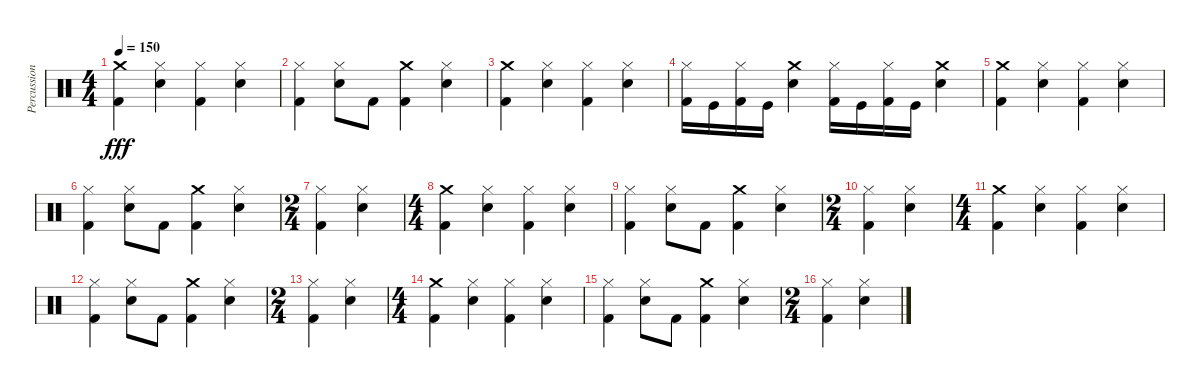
\track ("Percussion" "Percussion") {instrument percussion}
\staff {score}
\articulation defaults
\ts (4 4)
\tempo 150
\clef neutral
\ks c
("Kick (hit) 2" "Crash medium (hit)").4{dy fff} ("Hi-Hat (closed)" "Snare (hit) 2").4 ("Hi-Hat (closed)" "Kick (hit) 2").4 ("Snare (hit) 2" "Hi-Hat (closed)").4 |
("Hi-Hat (closed)" "Kick (hit) 2").4 ("Snare (hit) 2" "Hi-Hat (closed)").8 "Kick (hit) 2".8 ("Kick (hit) 2" "Crash medium (hit)").4 ("Hi-Hat (closed)" "Snare (hit) 2").4 |
("Kick (hit) 2" "Crash medium (hit)").4 ("Hi-Hat (closed)" "Snare (hit) 2").4 ("Hi-Hat (closed)" "Kick (hit) 2").4 ("Snare (hit) 2" "Hi-Hat (closed)").4 |
("Kick (hit) 2" "Hi-Hat (closed)").16 "Kick (hit)".16 ("Kick (hit) 2" "Hi-Hat (closed)").16 "Kick (hit)".16 ("Snare (hit) 2" "Crash medium (hit)").4 ("Kick (hit) 2" "Hi-Hat (closed)").16 "Kick (hit)".16 ("Kick (hit) 2" "Hi-Hat (closed)").16 "Kick (hit)".16 ("Crash medium (hit)" "Snare (hit) 2").4 |
("Kick (hit) 2" "Crash medium (hit)").4 ("Hi-Hat (closed)" "Snare (hit) 2").4 ("Hi-Hat (closed)" "Kick (hit) 2").4 ("Snare (hit) 2" "Hi-Hat (closed)").4 |
("Hi-Hat (closed)" "Kick (hit) 2").4 ("Snare (hit) 2" "Hi-Hat (closed)").8 "Kick (hit) 2".8 ("Kick (hit) 2" "Crash medium (hit)").4 ("Hi-Hat (closed)" "Snare (hit) 2").4 |
\ts (2 4)
("Hi-Hat (closed)" "Kick (hit) 2").4 ("Snare (hit) 2" "Hi-Hat (closed)").4 |
\ts (4 4)
("Kick (hit) 2" "Crash medium (hit)").4 ("Hi-Hat (closed)" "Snare (hit) 2").4 ("Hi-Hat (closed)" "Kick (hit) 2").4 ("Snare (hit) 2" "Hi-Hat (closed)").4 |
("Hi-Hat (closed)" "Kick (hit) 2").4 ("Snare (hit) 2" "Hi-Hat (closed)").8 "Kick (hit) 2".8 ("Kick (hit) 2" "Crash medium (hit)").4 ("Hi-Hat (closed)" "Snare (hit) 2").4 |
\ts (2 4)
("Hi-Hat (closed)" "Kick (hit) 2").4 ("Snare (hit) 2" "Hi-Hat (closed)").4 |
\ts (4 4)
("Kick (hit) 2" "Crash medium (hit)").4 ("Hi-Hat (closed)" "Snare (hit) 2").4 ("Hi-Hat (closed)" "Kick (hit) 2").4 ("Snare (hit) 2" "Hi-Hat (closed)").4 |
("Hi-Hat (closed)" "Kick (hit) 2").4 ("Snare (hit) 2" "Hi-Hat (closed)").8 "Kick (hit) 2".8 ("Kick (hit) 2" "Crash medium (hit)").4 ("Hi-Hat (closed)" "Snare (hit) 2").4 |
\ts (2 4)
("Hi-Hat (closed)" "Kick (hit) 2").4 ("Snare (hit) 2" "Hi-Hat (closed)").4 |
\ts (4 4)
("Kick (hit) 2" "Crash medium (hit)").4 ("Hi-Hat (closed)" "Snare (hit) 2").4 ("Hi-Hat (closed)" "Kick (hit) 2").4 ("Snare (hit) 2" "Hi-Hat (closed)").4 |
("Hi-Hat (closed)" "Kick (hit) 2").4 ("Snare (hit) 2" "Hi-Hat (closed)").8 "Kick (hit) 2".8 ("Kick (hit) 2" "Crash medium (hit)").4 ("Hi-Hat (closed)" "Snare (hit) 2").4 |
\ts (2 4)
("Hi-Hat (closed)" "Kick (hit) 2").4 ("Snare (hit) 2" "Hi-Hat (closed)").4
